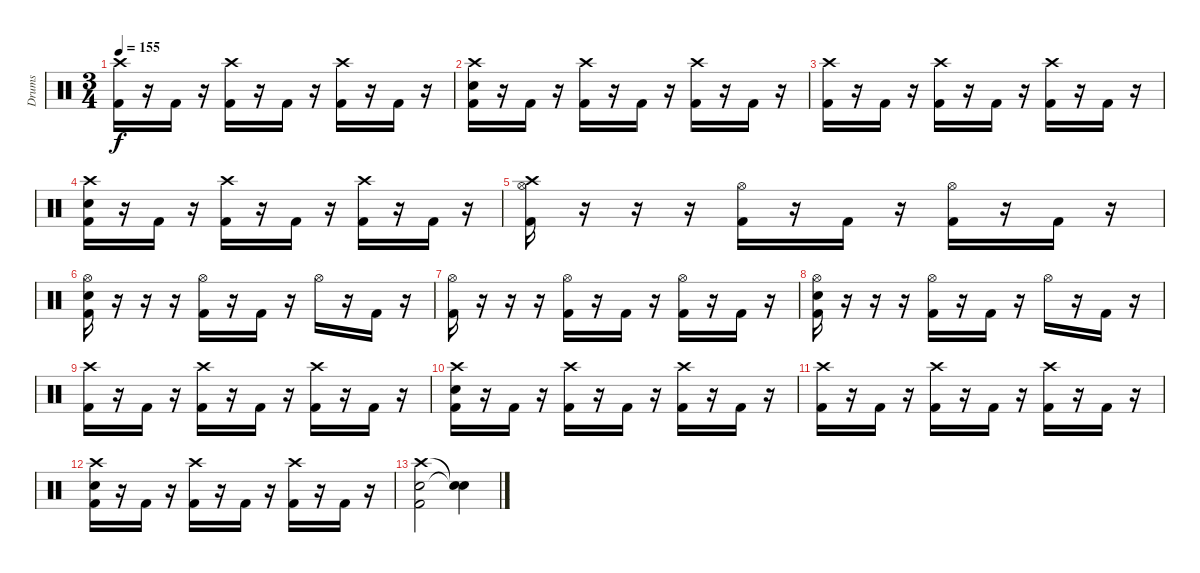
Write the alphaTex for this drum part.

\track ("Drums" "Drums") {instrument percussion}
\staff {score}
\articulation defaults
\ts (3 4)
\tempo 155
\clef neutral
\ks c
("Crash high (hit)" "Kick (hit) 2").16{dy f} r.16 "Kick (hit) 2".16 r.16 ("Crash high (hit)" "Kick (hit) 2").16 r.16 "Kick (hit) 2".16 r.16 ("Crash high (hit)" "Kick (hit) 2").16 r.16 "Kick (hit) 2".16 r.16 |
("Crash high (hit)" "Snare (hit) 2" "Kick (hit) 2").16 r.16 "Kick (hit) 2".16 r.16 ("Crash high (hit)" "Kick (hit) 2").16 r.16 "Kick (hit) 2".16 r.16 ("Crash high (hit)" "Kick (hit) 2").16 r.16 "Kick (hit) 2".16 r.16 |
("Crash high (hit)" "Kick (hit) 2").16 r.16 "Kick (hit) 2".16 r.16 ("Crash high (hit)" "Kick (hit) 2").16 r.16 "Kick (hit) 2".16 r.16 ("Crash high (hit)" "Kick (hit) 2").16 r.16 "Kick (hit) 2".16 r.16 |
("Crash high (hit)" "Snare (hit) 2" "Kick (hit) 2").16 r.16 "Kick (hit) 2".16 r.16 ("Crash high (hit)" "Kick (hit) 2").16 r.16 "Kick (hit) 2".16 r.16 ("Crash high (hit)" "Kick (hit) 2").16 r.16 "Kick (hit) 2".16 r.16 |
("Crash high (hit)" "Hi-Hat (open)" "Kick (hit) 2").16 r.16 r.16 r.16 ("Hi-Hat (open)" "Kick (hit) 2").16 r.16 "Kick (hit) 2".16 r.16 ("Hi-Hat (open)" "Kick (hit) 2").16 r.16 "Kick (hit) 2".16 r.16 |
("Hi-Hat (open)" "Snare (hit) 2" "Kick (hit) 2").16 r.16 r.16 r.16 ("Hi-Hat (open)" "Kick (hit) 2").16 r.16 "Kick (hit) 2".16 r.16 "Hi-Hat (open)".16 r.16 "Kick (hit) 2".16 r.16 |
("Hi-Hat (open)" "Kick (hit) 2").16 r.16 r.16 r.16 ("Hi-Hat (open)" "Kick (hit) 2").16 r.16 "Kick (hit) 2".16 r.16 ("Hi-Hat (open)" "Kick (hit) 2").16 r.16 "Kick (hit) 2".16 r.16 |
("Hi-Hat (open)" "Snare (hit) 2" "Kick (hit) 2").16 r.16 r.16 r.16 ("Hi-Hat (open)" "Kick (hit) 2").16 r.16 "Kick (hit) 2".16 r.16 "Hi-Hat (open)".16 r.16 "Kick (hit) 2".16 r.16 |
("Crash high (hit)" "Kick (hit) 2").16 r.16 "Kick (hit) 2".16 r.16 ("Crash high (hit)" "Kick (hit) 2").16 r.16 "Kick (hit) 2".16 r.16 ("Crash high (hit)" "Kick (hit) 2").16 r.16 "Kick (hit) 2".16 r.16 |
("Crash high (hit)" "Snare (hit) 2" "Kick (hit) 2").16 r.16 "Kick (hit) 2".16 r.16 ("Crash high (hit)" "Kick (hit) 2").16 r.16 "Kick (hit) 2".16 r.16 ("Crash high (hit)" "Kick (hit) 2").16 r.16 "Kick (hit) 2".16 r.16 |
("Crash high (hit)" "Kick (hit) 2").16 r.16 "Kick (hit) 2".16 r.16 ("Crash high (hit)" "Kick (hit) 2").16 r.16 "Kick (hit) 2".16 r.16 ("Crash high (hit)" "Kick (hit) 2").16 r.16 "Kick (hit) 2".16 r.16 |
("Crash high (hit)" "Snare (hit) 2" "Kick (hit) 2").16 r.16 "Kick (hit) 2".16 r.16 ("Crash high (hit)" "Kick (hit) 2").16 r.16 "Kick (hit) 2".16 r.16 ("Crash high (hit)" "Kick (hit) 2").16 r.16 "Kick (hit) 2".16 r.16 |
("Crash high (hit)" "Snare (hit) 2" "Kick (hit) 2").2 ("Snare (hit)"{t} "Snare (hit)"{t}).4
